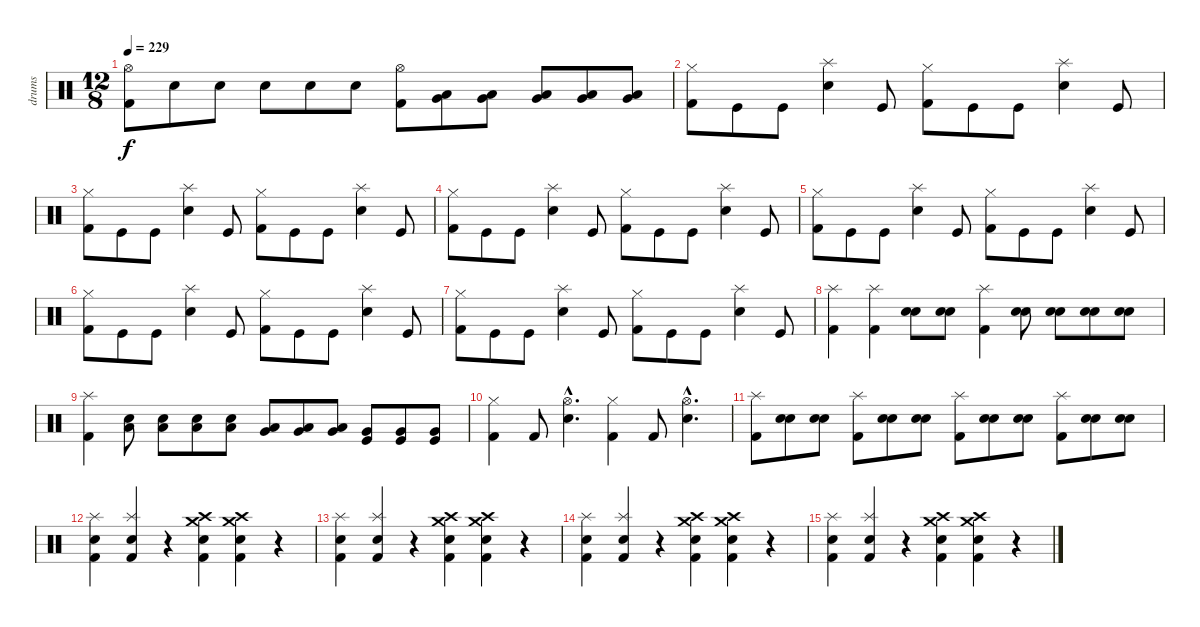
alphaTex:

\track ("drums" "drums") {instrument percussion}
\staff {score}
\articulation defaults
\ts (12 8)
\tempo 229
\clef neutral
\ks c
("Hi-Hat (open)" "Kick (hit) 2").8{dy f} "Snare (hit) 2".8 "Snare (hit) 2".8 "Snare (hit) 2".8 "Snare (hit) 2".8 "Snare (hit) 2".8 ("Hi-Hat (open)" "Kick (hit) 2").8 ("Low Tom (hit)" "Very Low Tom (hit)").8 ("Low Tom (hit)" "Very Low Tom (hit)").8 ("Low Tom (hit)" "Very Low Tom (hit)").8 ("Low Tom (hit)" "Very Low Tom (hit)").8 ("Low Floor Tom (hit)" "Very Low Tom (hit)").8 |
("Hi-Hat (closed)" "Kick (hit) 2").8 "Kick (hit)".8 "Kick (hit)".8 ("Splash (hit)" "Snare (hit) 2").4 "Kick (hit)".8 ("Hi-Hat (closed)" "Kick (hit) 2").8 "Kick (hit)".8 "Kick (hit)".8 ("Splash (hit)" "Snare (hit) 2").4 "Kick (hit)".8 |
("Hi-Hat (closed)" "Kick (hit) 2").8 "Kick (hit)".8 "Kick (hit)".8 ("Splash (hit)" "Snare (hit) 2").4 "Kick (hit)".8 ("Hi-Hat (closed)" "Kick (hit) 2").8 "Kick (hit)".8 "Kick (hit)".8 ("Splash (hit)" "Snare (hit) 2").4 "Kick (hit)".8 |
("Hi-Hat (closed)" "Kick (hit) 2").8 "Kick (hit)".8 "Kick (hit)".8 ("Splash (hit)" "Snare (hit) 2").4 "Kick (hit)".8 ("Hi-Hat (closed)" "Kick (hit) 2").8 "Kick (hit)".8 "Kick (hit)".8 ("Splash (hit)" "Snare (hit) 2").4 "Kick (hit)".8 |
("Hi-Hat (closed)" "Kick (hit) 2").8 "Kick (hit)".8 "Kick (hit)".8 ("Splash (hit)" "Snare (hit) 2").4 "Kick (hit)".8 ("Hi-Hat (closed)" "Kick (hit) 2").8 "Kick (hit)".8 "Kick (hit)".8 ("Splash (hit)" "Snare (hit) 2").4 "Kick (hit)".8 |
("Hi-Hat (closed)" "Kick (hit) 2").8 "Kick (hit)".8 "Kick (hit)".8 ("Splash (hit)" "Snare (hit) 2").4 "Kick (hit)".8 ("Hi-Hat (closed)" "Kick (hit) 2").8 "Kick (hit)".8 "Kick (hit)".8 ("Splash (hit)" "Snare (hit) 2").4 "Kick (hit)".8 |
("Hi-Hat (closed)" "Kick (hit) 2").8 "Kick (hit)".8 "Kick (hit)".8 ("Splash (hit)" "Snare (hit) 2").4 "Kick (hit)".8 ("Hi-Hat (closed)" "Kick (hit) 2").8 "Kick (hit)".8 "Kick (hit)".8 ("Splash (hit)" "Snare (hit) 2").4 "Kick (hit)".8 |
("Splash (hit)" "Kick (hit) 2").4 ("Splash (hit)" "Kick (hit) 2").4 ("Snare (hit) 2" "Snare (hit) 2").8 ("Electric Snare (hit)" "Snare (hit) 2").8 ("Splash (hit)" "Kick (hit) 2").4 ("Electric Snare (hit)" "Snare (hit) 2").8 ("Electric Snare (hit)" "Snare (hit) 2").8 ("Electric Snare (hit)" "Snare (hit) 2").8 ("Electric Snare (hit)" "Snare (hit) 2").8 |
("Splash (hit)" "Kick (hit) 2").4 ("Low Tom (hit)" "Snare (hit) 2").8 ("Low Tom (hit)" "Snare (hit) 2").8 ("Low Tom (hit)" "Snare (hit) 2").8 ("Low Tom (hit)" "Snare (hit) 2").8 ("Low Floor Tom (hit)" "Very Low Tom (hit)").8 ("Low Floor Tom (hit)" "Very Low Tom (hit)").8 ("Low Floor Tom (hit)" "Very Low Tom (hit)").8 ("Kick (hit)" "Very Low Tom (hit)").8 ("Kick (hit)" "Very Low Tom (hit)").8 ("Kick (hit)" "Very Low Tom (hit)").8 |
("Hi-Hat (closed)" "Kick (hit) 2").4 "Kick (hit) 2".8 ("Hi-Hat (open)"{hac} "Snare (hit) 2"{hac}).4{d} ("Hi-Hat (closed)" "Kick (hit) 2").4 "Kick (hit) 2".8 ("Hi-Hat (open)"{hac} "Snare (hit) 2"{hac}).4{d} |
("Splash (hit)" "Kick (hit) 2").8 ("Electric Snare (hit)" "Snare (hit) 2").8 ("Electric Snare (hit)" "Snare (hit) 2").8 ("Splash (hit)" "Kick (hit) 2").8 ("Electric Snare (hit)" "Snare (hit) 2").8 ("Electric Snare (hit)" "Snare (hit) 2").8 ("Splash (hit)" "Kick (hit) 2").8 ("Electric Snare (hit)" "Snare (hit) 2").8 ("Electric Snare (hit)" "Snare (hit) 2").8 ("Splash (hit)" "Kick (hit) 2").8 ("Snare (hit) 2" "Electric Snare (hit)").8 ("Snare (hit) 2" "Electric Snare (hit)").8 |
("Splash (hit)" "Snare (hit) 2" "Kick (hit) 2").4 ("Splash (hit)" "Electric Snare (hit)" "Kick (hit) 2").4 r.4 ("Crash medium (hit)" "Crash high (hit)" "Snare (hit) 2" "Kick (hit) 2").4 ("Crash medium (hit)" "Crash high (hit)" "Snare (hit) 2" "Kick (hit) 2").4 r.4 |
("Splash (hit)" "Snare (hit) 2" "Kick (hit) 2").4 ("Splash (hit)" "Electric Snare (hit)" "Kick (hit) 2").4 r.4 ("Crash medium (hit)" "Crash high (hit)" "Snare (hit) 2" "Kick (hit) 2").4 ("Crash medium (hit)" "Crash high (hit)" "Snare (hit) 2" "Kick (hit) 2").4 r.4 |
("Splash (hit)" "Snare (hit) 2" "Kick (hit) 2").4 ("Splash (hit)" "Electric Snare (hit)" "Kick (hit) 2").4 r.4 ("Crash medium (hit)" "Crash high (hit)" "Snare (hit) 2" "Kick (hit) 2").4 ("Crash medium (hit)" "Crash high (hit)" "Snare (hit) 2" "Kick (hit) 2").4 r.4 |
("Splash (hit)" "Snare (hit) 2" "Kick (hit) 2").4 ("Splash (hit)" "Electric Snare (hit)" "Kick (hit) 2").4 r.4 ("Crash medium (hit)" "Crash high (hit)" "Snare (hit) 2" "Kick (hit) 2").4 ("Crash medium (hit)" "Crash high (hit)" "Snare (hit) 2" "Kick (hit) 2").4 r.4
